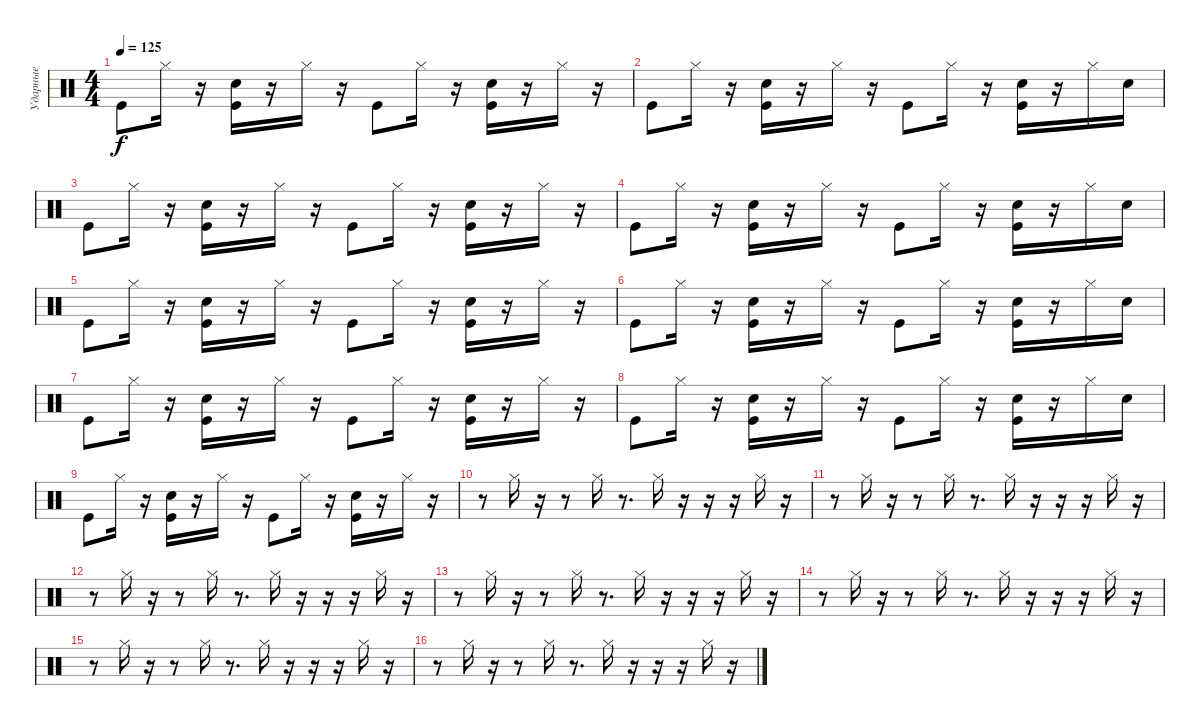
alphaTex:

\track ("Ударные" "Ударные") {instrument percussion}
\staff {score}
\articulation defaults
\ts (4 4)
\tempo 125
\clef neutral
\ks c "Kick (hit)".8{dy f} "Hi-Hat (closed)".16
r.16 ("Snare (hit) 2" "Kick (hit)").16 r.16 "Hi-Hat (closed)".16 r.16 "Kick (hit)".8 "Hi-Hat (closed)".16 r.16 ("Snare (hit) 2" "Kick (hit)").16 r.16 "Hi-Hat (closed)".16 r.16 |
"Kick (hit)".8 "Hi-Hat (closed)".16 r.16 ("Snare (hit) 2" "Kick (hit)").16 r.16 "Hi-Hat (closed)".16 r.16 "Kick (hit)".8 "Hi-Hat (closed)".16 r.16 ("Snare (hit) 2" "Kick (hit)").16 r.16 "Hi-Hat (closed)".16 "Snare (hit) 2".16 |
"Kick (hit)".8 "Hi-Hat (closed)".16 r.16 ("Snare (hit) 2" "Kick (hit)").16 r.16 "Hi-Hat (closed)".16 r.16 "Kick (hit)".8 "Hi-Hat (closed)".16 r.16 ("Snare (hit) 2" "Kick (hit)").16 r.16 "Hi-Hat (closed)".16 r.16 |
"Kick (hit)".8 "Hi-Hat (closed)".16 r.16 ("Snare (hit) 2" "Kick (hit)").16 r.16 "Hi-Hat (closed)".16 r.16 "Kick (hit)".8 "Hi-Hat (closed)".16 r.16 ("Snare (hit) 2" "Kick (hit)").16 r.16 "Hi-Hat (closed)".16 "Snare (hit) 2".16 |
"Kick (hit)".8 "Hi-Hat (closed)".16 r.16 ("Snare (hit) 2" "Kick (hit)").16 r.16 "Hi-Hat (closed)".16 r.16 "Kick (hit)".8 "Hi-Hat (closed)".16 r.16 ("Snare (hit) 2" "Kick (hit)").16 r.16 "Hi-Hat (closed)".16 r.16 |
"Kick (hit)".8 "Hi-Hat (closed)".16 r.16 ("Snare (hit) 2" "Kick (hit)").16 r.16 "Hi-Hat (closed)".16 r.16 "Kick (hit)".8 "Hi-Hat (closed)".16 r.16 ("Snare (hit) 2" "Kick (hit)").16 r.16 "Hi-Hat (closed)".16 "Snare (hit) 2".16 |
"Kick (hit)".8 "Hi-Hat (closed)".16 r.16 ("Snare (hit) 2" "Kick (hit)").16 r.16 "Hi-Hat (closed)".16 r.16 "Kick (hit)".8 "Hi-Hat (closed)".16 r.16 ("Snare (hit) 2" "Kick (hit)").16 r.16 "Hi-Hat (closed)".16 r.16 |
"Kick (hit)".8 "Hi-Hat (closed)".16 r.16 ("Snare (hit) 2" "Kick (hit)").16 r.16 "Hi-Hat (closed)".16 r.16 "Kick (hit)".8 "Hi-Hat (closed)".16 r.16 ("Snare (hit) 2" "Kick (hit)").16 r.16 "Hi-Hat (closed)".16 "Snare (hit) 2".16 |
"Kick (hit)".8 "Hi-Hat (closed)".16 r.16 ("Snare (hit) 2" "Kick (hit)").16 r.16 "Hi-Hat (closed)".16 r.16 "Kick (hit)".8 "Hi-Hat (closed)".16 r.16 ("Snare (hit) 2" "Kick (hit)").16 r.16 "Hi-Hat (closed)".16 r.16 |
r.8 "Hi-Hat (closed)".16 r.16 r.8 "Hi-Hat (closed)".16 r.8{d} "Hi-Hat (closed)".16 r.16 r.16 r.16 "Hi-Hat (closed)".16 r.16 |
r.8 "Hi-Hat (closed)".16 r.16 r.8 "Hi-Hat (closed)".16 r.8{d} "Hi-Hat (closed)".16 r.16 r.16 r.16 "Hi-Hat (closed)".16 r.16 |
r.8 "Hi-Hat (closed)".16 r.16 r.8 "Hi-Hat (closed)".16 r.8{d} "Hi-Hat (closed)".16 r.16 r.16 r.16 "Hi-Hat (closed)".16 r.16 |
r.8 "Hi-Hat (closed)".16 r.16 r.8 "Hi-Hat (closed)".16 r.8{d} "Hi-Hat (closed)".16 r.16 r.16 r.16 "Hi-Hat (closed)".16 r.16 |
r.8 "Hi-Hat (closed)".16 r.16 r.8 "Hi-Hat (closed)".16 r.8{d} "Hi-Hat (closed)".16 r.16 r.16 r.16 "Hi-Hat (closed)".16 r.16 |
r.8 "Hi-Hat (closed)".16 r.16 r.8 "Hi-Hat (closed)".16 r.8{d} "Hi-Hat (closed)".16 r.16 r.16 r.16 "Hi-Hat (closed)".16 r.16 |
r.8 "Hi-Hat (closed)".16 r.16 r.8 "Hi-Hat (closed)".16 r.8{d} "Hi-Hat (closed)".16 r.16 r.16 r.16 "Hi-Hat (closed)".16 r.16
